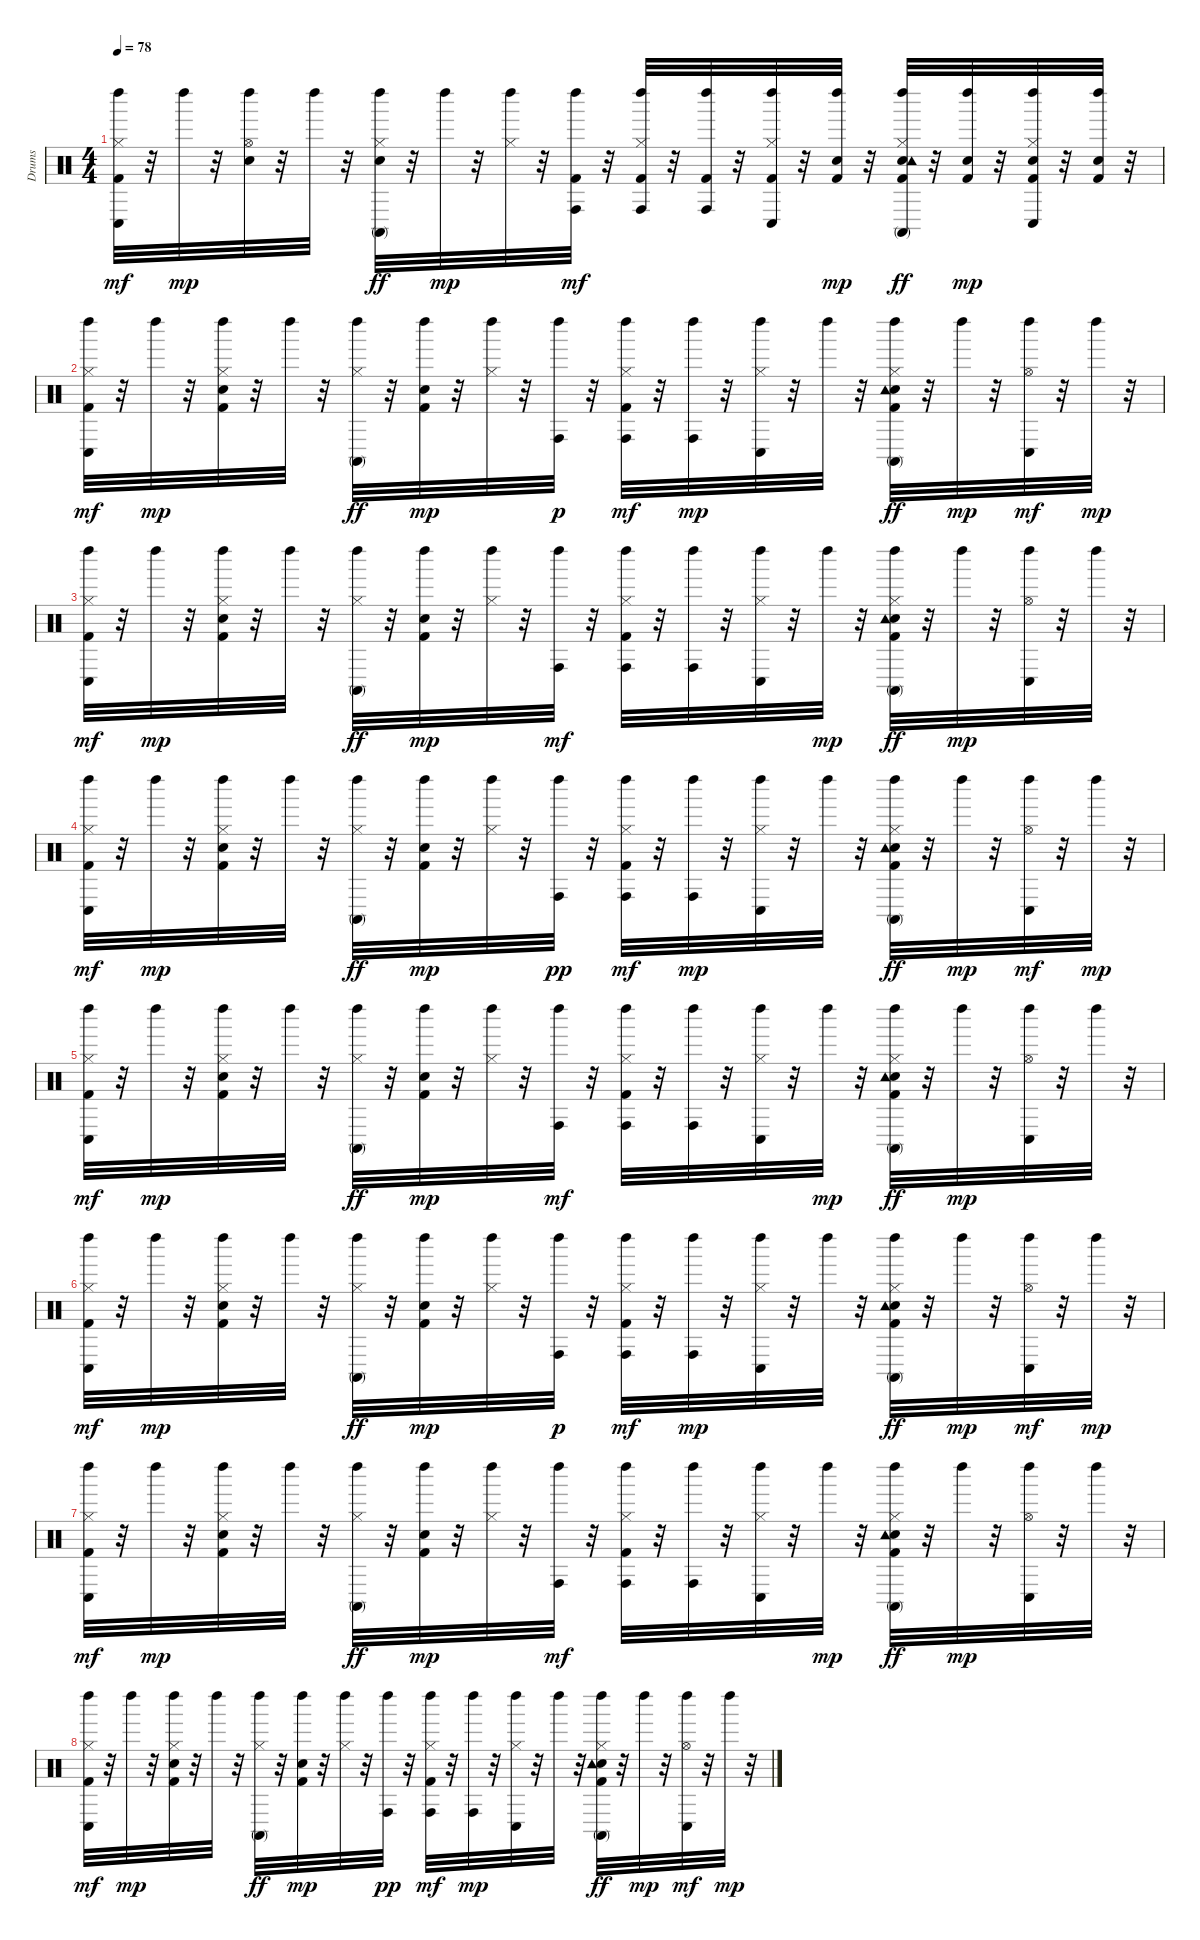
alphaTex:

\track ("Drums               " "Drums     ") {instrument percussion}
\staff {score}
\articulation defaults
\ts (4 4)
\tempo 78
\clef neutral
\ks c
("Kick (hit) 2" "Hi-Hat (closed)" "Left Maraca (hit)" "Conga low (hit)").32{dy mf} r.32 "Left Maraca (hit)".32{dy mp} r.32 ("Snare (hit) 2" "Hi-Hat (open)" "Left Maraca (hit)").32 r.32 "Left Maraca (hit)".32 r.32 ("Snare (hit) 2" "Hi-Hat (closed)" "Left Maraca (hit)" "Conga high (mute)").32{dy ff} r.32 "Left Maraca (hit)".32{dy mp} r.32 ("Hi-Hat (closed)" "Left Maraca (hit)").32 r.32 ("Kick (hit) 2" "Left Maraca (hit)" "Conga high (hit)").32{dy mf} r.32 ("Kick (hit) 2" "Hi-Hat (closed)" "Left Maraca (hit)" "Conga high (hit)").32 r.32 ("Kick (hit) 2" "Left Maraca (hit)" "Conga high (hit)").32 r.32 ("Kick (hit) 2" "Hi-Hat (closed)" "Left Maraca (hit)" "Conga low (hit)").32 r.32 ("Kick (hit) 2" "Snare (hit) 2" "Left Maraca (hit)").32{dy mp} r.32 ("Kick (hit) 2" "Snare (hit) 2" "Hi-Hat (closed)" "Left Maraca (hit)" "Conga high (mute)" "Tambourine (hit)").32{dy ff} r.32 ("Kick (hit) 2" "Snare (hit) 2" "Left Maraca (hit)").32{dy mp} r.32 ("Kick (hit) 2" "Snare (hit) 2" "Hi-Hat (closed)" "Left Maraca (hit)" "Conga low (hit)").32 r.32 ("Kick (hit) 2" "Snare (hit) 2" "Left Maraca (hit)").32 r.32 |
("Kick (hit) 2" "Hi-Hat (closed)" "Left Maraca (hit)" "Conga low (hit)").32{dy mf} r.32 "Left Maraca (hit)".32{dy mp} r.32 ("Kick (hit) 2" "Snare (hit) 2" "Hi-Hat (closed)" "Left Maraca (hit)").32 r.32 "Left Maraca (hit)".32 r.32 ("Hi-Hat (closed)" "Left Maraca (hit)" "Conga high (mute)").32{dy ff} r.32 ("Kick (hit) 2" "Snare (hit) 2" "Left Maraca (hit)").32{dy mp} r.32 ("Hi-Hat (closed)" "Left Maraca (hit)").32 r.32 ("Left Maraca (hit)" "Conga high (hit)").32{dy p} r.32 ("Kick (hit) 2" "Hi-Hat (closed)" "Left Maraca (hit)" "Conga high (hit)").32{dy mf} r.32 ("Left Maraca (hit)" "Conga high (hit)").32{dy mp} r.32 ("Hi-Hat (closed)" "Left Maraca (hit)" "Conga low (hit)").32 r.32 "Left Maraca (hit)".32 r.32 ("Kick (hit) 2" "Snare (hit) 2" "Hi-Hat (closed)" "Left Maraca (hit)" "Conga high (mute)" "Tambourine (hit)").32{dy ff} r.32 "Left Maraca (hit)".32{dy mp} r.32 ("Hi-Hat (open)" "Left Maraca (hit)" "Conga low (hit)").32{dy mf} r.32 "Left Maraca (hit)".32{dy mp} r.32 |
("Kick (hit) 2" "Hi-Hat (closed)" "Left Maraca (hit)" "Conga low (hit)").32{dy mf} r.32 "Left Maraca (hit)".32{dy mp} r.32 ("Kick (hit) 2" "Snare (hit) 2" "Hi-Hat (closed)" "Left Maraca (hit)").32 r.32 "Left Maraca (hit)".32 r.32 ("Hi-Hat (closed)" "Left Maraca (hit)" "Conga high (mute)").32{dy ff} r.32 ("Kick (hit) 2" "Snare (hit) 2" "Left Maraca (hit)").32{dy mp} r.32 ("Hi-Hat (closed)" "Left Maraca (hit)").32 r.32 ("Left Maraca (hit)" "Conga high (hit)").32{dy mf} r.32 ("Kick (hit) 2" "Hi-Hat (closed)" "Left Maraca (hit)" "Conga high (hit)").32 r.32 ("Left Maraca (hit)" "Conga high (hit)").32 r.32 ("Hi-Hat (closed)" "Left Maraca (hit)" "Conga low (hit)").32 r.32 "Left Maraca (hit)".32{dy mp} r.32 ("Kick (hit) 2" "Snare (hit) 2" "Hi-Hat (closed)" "Left Maraca (hit)" "Conga high (mute)" "Tambourine (hit)").32{dy ff} r.32 "Left Maraca (hit)".32{dy mp} r.32 ("Hi-Hat (open)" "Left Maraca (hit)" "Conga low (hit)").32 r.32 "Left Maraca (hit)".32 r.32 |
("Kick (hit) 2" "Hi-Hat (closed)" "Left Maraca (hit)" "Conga low (hit)").32{dy mf} r.32 "Left Maraca (hit)".32{dy mp} r.32 ("Kick (hit) 2" "Snare (hit) 2" "Hi-Hat (closed)" "Left Maraca (hit)").32 r.32 "Left Maraca (hit)".32 r.32 ("Hi-Hat (closed)" "Left Maraca (hit)" "Conga high (mute)").32{dy ff} r.32 ("Kick (hit) 2" "Snare (hit) 2" "Left Maraca (hit)").32{dy mp} r.32 ("Hi-Hat (closed)" "Left Maraca (hit)").32 r.32 ("Left Maraca (hit)" "Conga high (hit)").32{dy pp} r.32 ("Kick (hit) 2" "Hi-Hat (closed)" "Left Maraca (hit)" "Conga high (hit)").32{dy mf} r.32 ("Left Maraca (hit)" "Conga high (hit)").32{dy mp} r.32 ("Hi-Hat (closed)" "Left Maraca (hit)" "Conga low (hit)").32 r.32 "Left Maraca (hit)".32 r.32 ("Kick (hit) 2" "Snare (hit) 2" "Hi-Hat (closed)" "Left Maraca (hit)" "Conga high (mute)" "Tambourine (hit)").32{dy ff} r.32 "Left Maraca (hit)".32{dy mp} r.32 ("Hi-Hat (open)" "Left Maraca (hit)" "Conga low (hit)").32{dy mf} r.32 "Left Maraca (hit)".32{dy mp} r.32 |
("Kick (hit) 2" "Hi-Hat (closed)" "Left Maraca (hit)" "Conga low (hit)").32{dy mf} r.32 "Left Maraca (hit)".32{dy mp} r.32 ("Kick (hit) 2" "Snare (hit) 2" "Hi-Hat (closed)" "Left Maraca (hit)").32 r.32 "Left Maraca (hit)".32 r.32 ("Hi-Hat (closed)" "Left Maraca (hit)" "Conga high (mute)").32{dy ff} r.32 ("Kick (hit) 2" "Snare (hit) 2" "Left Maraca (hit)").32{dy mp} r.32 ("Hi-Hat (closed)" "Left Maraca (hit)").32 r.32 ("Left Maraca (hit)" "Conga high (hit)").32{dy mf} r.32 ("Kick (hit) 2" "Hi-Hat (closed)" "Left Maraca (hit)" "Conga high (hit)").32 r.32 ("Left Maraca (hit)" "Conga high (hit)").32 r.32 ("Hi-Hat (closed)" "Left Maraca (hit)" "Conga low (hit)").32 r.32 "Left Maraca (hit)".32{dy mp} r.32 ("Kick (hit) 2" "Snare (hit) 2" "Hi-Hat (closed)" "Left Maraca (hit)" "Conga high (mute)" "Tambourine (hit)").32{dy ff} r.32 "Left Maraca (hit)".32{dy mp} r.32 ("Hi-Hat (open)" "Left Maraca (hit)" "Conga low (hit)").32 r.32 "Left Maraca (hit)".32 r.32 |
("Kick (hit) 2" "Hi-Hat (closed)" "Left Maraca (hit)" "Conga low (hit)").32{dy mf} r.32 "Left Maraca (hit)".32{dy mp} r.32 ("Kick (hit) 2" "Snare (hit) 2" "Hi-Hat (closed)" "Left Maraca (hit)").32 r.32 "Left Maraca (hit)".32 r.32 ("Hi-Hat (closed)" "Left Maraca (hit)" "Conga high (mute)").32{dy ff} r.32 ("Kick (hit) 2" "Snare (hit) 2" "Left Maraca (hit)").32{dy mp} r.32 ("Hi-Hat (closed)" "Left Maraca (hit)").32 r.32 ("Left Maraca (hit)" "Conga high (hit)").32{dy p} r.32 ("Kick (hit) 2" "Hi-Hat (closed)" "Left Maraca (hit)" "Conga high (hit)").32{dy mf} r.32 ("Left Maraca (hit)" "Conga high (hit)").32{dy mp} r.32 ("Hi-Hat (closed)" "Left Maraca (hit)" "Conga low (hit)").32 r.32 "Left Maraca (hit)".32 r.32 ("Kick (hit) 2" "Snare (hit) 2" "Hi-Hat (closed)" "Left Maraca (hit)" "Conga high (mute)" "Tambourine (hit)").32{dy ff} r.32 "Left Maraca (hit)".32{dy mp} r.32 ("Hi-Hat (open)" "Left Maraca (hit)" "Conga low (hit)").32{dy mf} r.32 "Left Maraca (hit)".32{dy mp} r.32 |
("Kick (hit) 2" "Hi-Hat (closed)" "Left Maraca (hit)" "Conga low (hit)").32{dy mf} r.32 "Left Maraca (hit)".32{dy mp} r.32 ("Kick (hit) 2" "Snare (hit) 2" "Hi-Hat (closed)" "Left Maraca (hit)").32 r.32 "Left Maraca (hit)".32 r.32 ("Hi-Hat (closed)" "Left Maraca (hit)" "Conga high (mute)").32{dy ff} r.32 ("Kick (hit) 2" "Snare (hit) 2" "Left Maraca (hit)").32{dy mp} r.32 ("Hi-Hat (closed)" "Left Maraca (hit)").32 r.32 ("Left Maraca (hit)" "Conga high (hit)").32{dy mf} r.32 ("Kick (hit) 2" "Hi-Hat (closed)" "Left Maraca (hit)" "Conga high (hit)").32 r.32 ("Left Maraca (hit)" "Conga high (hit)").32 r.32 ("Hi-Hat (closed)" "Left Maraca (hit)" "Conga low (hit)").32 r.32 "Left Maraca (hit)".32{dy mp} r.32 ("Kick (hit) 2" "Snare (hit) 2" "Hi-Hat (closed)" "Left Maraca (hit)" "Conga high (mute)" "Tambourine (hit)").32{dy ff} r.32 "Left Maraca (hit)".32{dy mp} r.32 ("Hi-Hat (open)" "Left Maraca (hit)" "Conga low (hit)").32 r.32 "Left Maraca (hit)".32 r.32 |
("Kick (hit) 2" "Hi-Hat (closed)" "Left Maraca (hit)" "Conga low (hit)").32{dy mf} r.32 "Left Maraca (hit)".32{dy mp} r.32 ("Kick (hit) 2" "Snare (hit) 2" "Hi-Hat (closed)" "Left Maraca (hit)").32 r.32 "Left Maraca (hit)".32 r.32 ("Hi-Hat (closed)" "Left Maraca (hit)" "Conga high (mute)").32{dy ff} r.32 ("Kick (hit) 2" "Snare (hit) 2" "Left Maraca (hit)").32{dy mp} r.32 ("Hi-Hat (closed)" "Left Maraca (hit)").32 r.32 ("Left Maraca (hit)" "Conga high (hit)").32{dy pp} r.32 ("Kick (hit) 2" "Hi-Hat (closed)" "Left Maraca (hit)" "Conga high (hit)").32{dy mf} r.32 ("Left Maraca (hit)" "Conga high (hit)").32{dy mp} r.32 ("Hi-Hat (closed)" "Left Maraca (hit)" "Conga low (hit)").32 r.32 "Left Maraca (hit)".32 r.32 ("Kick (hit) 2" "Snare (hit) 2" "Hi-Hat (closed)" "Left Maraca (hit)" "Conga high (mute)" "Tambourine (hit)").32{dy ff} r.32 "Left Maraca (hit)".32{dy mp} r.32 ("Hi-Hat (open)" "Left Maraca (hit)" "Conga low (hit)").32{dy mf} r.32 "Left Maraca (hit)".32{dy mp} r.32
